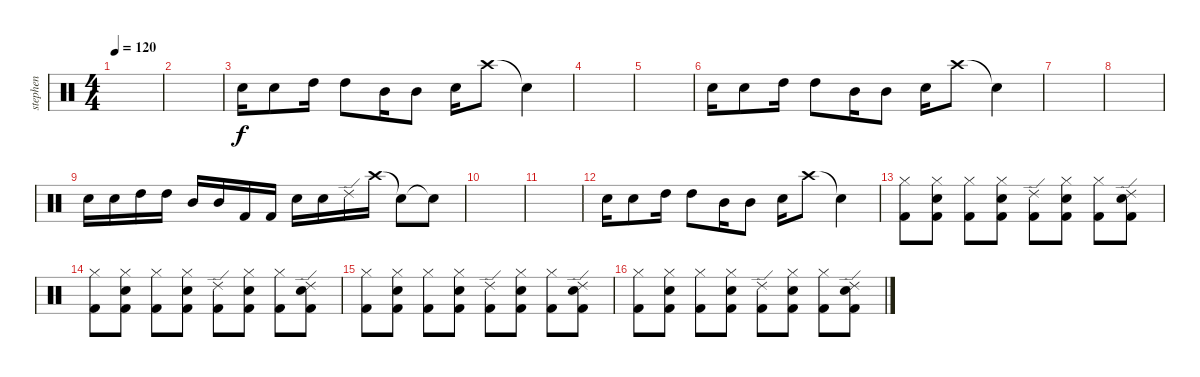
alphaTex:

\track ("stephen" "stephen") {instrument percussion}
\staff {score}
\articulation defaults
\ts (4 4)
\tempo 120
\clef neutral
\ks c
|
|
"Snare (hit) 2".16 "Snare (hit) 2".8 "High Tom (hit)".16 "High Tom (hit)".8 "Mid Tom (hit)".16 "Mid Tom (hit)".8 "Snare (hit) 2".16 "Crash high (hit)".8 "Snare (hit)"{t}.4 |
|
|
"Snare (hit) 2".16 "Snare (hit) 2".8 "High Tom (hit)".16 "High Tom (hit)".8 "Mid Tom (hit)".16 "Mid Tom (hit)".8 "Snare (hit) 2".16 "Crash high (hit)".8 "Snare (hit)"{t}.4 |
|
|
"Snare (hit) 2".16 "Snare (hit) 2".16 "High Tom (hit)".16 "High Tom (hit)".16 "Mid Tom (hit)".16 "Mid Tom (hit)".16 "Kick (hit) 2".16 "Kick (hit) 2".16 "Snare (hit) 2".16 "Snare (hit) 2".16 "Ride (edge) 2".16 "Crash high (hit)".16 "Snare (hit)"{t}.8 "Snare (hit)"{t}.8 |
|
|
"Snare (hit) 2".16 "Snare (hit) 2".8 "High Tom (hit)".16 "High Tom (hit)".8 "Mid Tom (hit)".16 "Mid Tom (hit)".8 "Snare (hit) 2".16 "Crash high (hit)".8 "Snare (hit)"{t}.4 |
("Kick (hit) 2" "Hi-Hat (closed)").8 ("Kick (hit) 2" "Snare (hit) 2" "Hi-Hat (closed)").8 ("Kick (hit) 2" "Hi-Hat (closed)").8 ("Snare (hit) 2" "Kick (hit) 2" "Hi-Hat (closed)").8 ("Kick (hit) 2" "Ride (edge) 2").8 ("Snare (hit) 2" "Kick (hit) 2" "Hi-Hat (closed)").8 ("Kick (hit) 2" "Hi-Hat (closed)").8 ("Snare (hit) 2" "Kick (hit) 2" "Ride (edge) 2").8 |
("Kick (hit) 2" "Hi-Hat (closed)").8 ("Kick (hit) 2" "Snare (hit) 2" "Hi-Hat (closed)").8 ("Kick (hit) 2" "Hi-Hat (closed)").8 ("Snare (hit) 2" "Kick (hit) 2" "Hi-Hat (closed)").8 ("Kick (hit) 2" "Ride (edge) 2").8 ("Snare (hit) 2" "Kick (hit) 2" "Hi-Hat (closed)").8 ("Kick (hit) 2" "Hi-Hat (closed)").8 ("Snare (hit) 2" "Kick (hit) 2" "Ride (edge) 2").8 |
("Kick (hit) 2" "Hi-Hat (closed)").8 ("Kick (hit) 2" "Snare (hit) 2" "Hi-Hat (closed)").8 ("Kick (hit) 2" "Hi-Hat (closed)").8 ("Snare (hit) 2" "Kick (hit) 2" "Hi-Hat (closed)").8 ("Kick (hit) 2" "Ride (edge) 2").8 ("Snare (hit) 2" "Kick (hit) 2" "Hi-Hat (closed)").8 ("Kick (hit) 2" "Hi-Hat (closed)").8 ("Snare (hit) 2" "Kick (hit) 2" "Ride (edge) 2").8 |
("Kick (hit) 2" "Hi-Hat (closed)").8 ("Kick (hit) 2" "Snare (hit) 2" "Hi-Hat (closed)").8 ("Kick (hit) 2" "Hi-Hat (closed)").8 ("Snare (hit) 2" "Kick (hit) 2" "Hi-Hat (closed)").8 ("Kick (hit) 2" "Ride (edge) 2").8 ("Snare (hit) 2" "Kick (hit) 2" "Hi-Hat (closed)").8 ("Kick (hit) 2" "Hi-Hat (closed)").8 ("Snare (hit) 2" "Kick (hit) 2" "Ride (edge) 2").8
